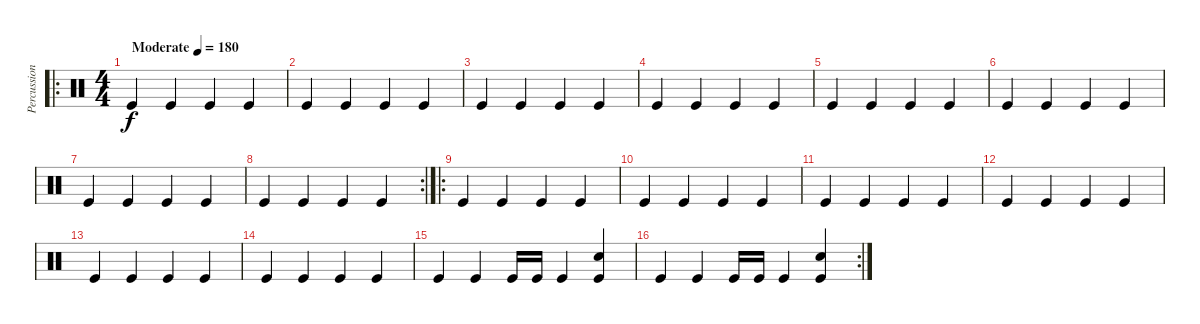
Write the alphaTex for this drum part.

\track ("Percussion" "Percussion") {instrument percussion}
\staff {score}
\articulation defaults
\ro
\ts (4 4)
\tempo (180 "Moderate")
\clef neutral
\ks c "Kick (hit)".4{dy f} "Kick (hit)".4 "Kick (hit)".4 "Kick (hit)".4
|
"Kick (hit)".4 "Kick (hit)".4 "Kick (hit)".4 "Kick (hit)".4 |
"Kick (hit)".4 "Kick (hit)".4 "Kick (hit)".4 "Kick (hit)".4 |
"Kick (hit)".4 "Kick (hit)".4 "Kick (hit)".4 "Kick (hit)".4 |
"Kick (hit)".4 "Kick (hit)".4 "Kick (hit)".4 "Kick (hit)".4 |
"Kick (hit)".4 "Kick (hit)".4 "Kick (hit)".4 "Kick (hit)".4 |
"Kick (hit)".4 "Kick (hit)".4 "Kick (hit)".4 "Kick (hit)".4 |
\rc 2 "Kick (hit)".4 "Kick (hit)".4 "Kick (hit)".4 "Kick (hit)".4
|
\ro "Kick (hit)".4 "Kick (hit)".4 "Kick (hit)".4 "Kick (hit)".4
|
"Kick (hit)".4 "Kick (hit)".4 "Kick (hit)".4 "Kick (hit)".4 |
"Kick (hit)".4 "Kick (hit)".4 "Kick (hit)".4 "Kick (hit)".4 |
"Kick (hit)".4 "Kick (hit)".4 "Kick (hit)".4 "Kick (hit)".4 |
"Kick (hit)".4 "Kick (hit)".4 "Kick (hit)".4 "Kick (hit)".4 |
"Kick (hit)".4 "Kick (hit)".4 "Kick (hit)".4 "Kick (hit)".4 |
"Kick (hit)".4 "Kick (hit)".4 "Kick (hit)".16 "Kick (hit)".16 "Kick (hit)".4 ("Kick (hit)" "Electric Snare (hit)").4 |
\rc 2 "Kick (hit)".4 "Kick (hit)".4 "Kick (hit)".16 "Kick (hit)".16 "Kick (hit)".4
("Kick (hit)" "Electric Snare (hit)").4
